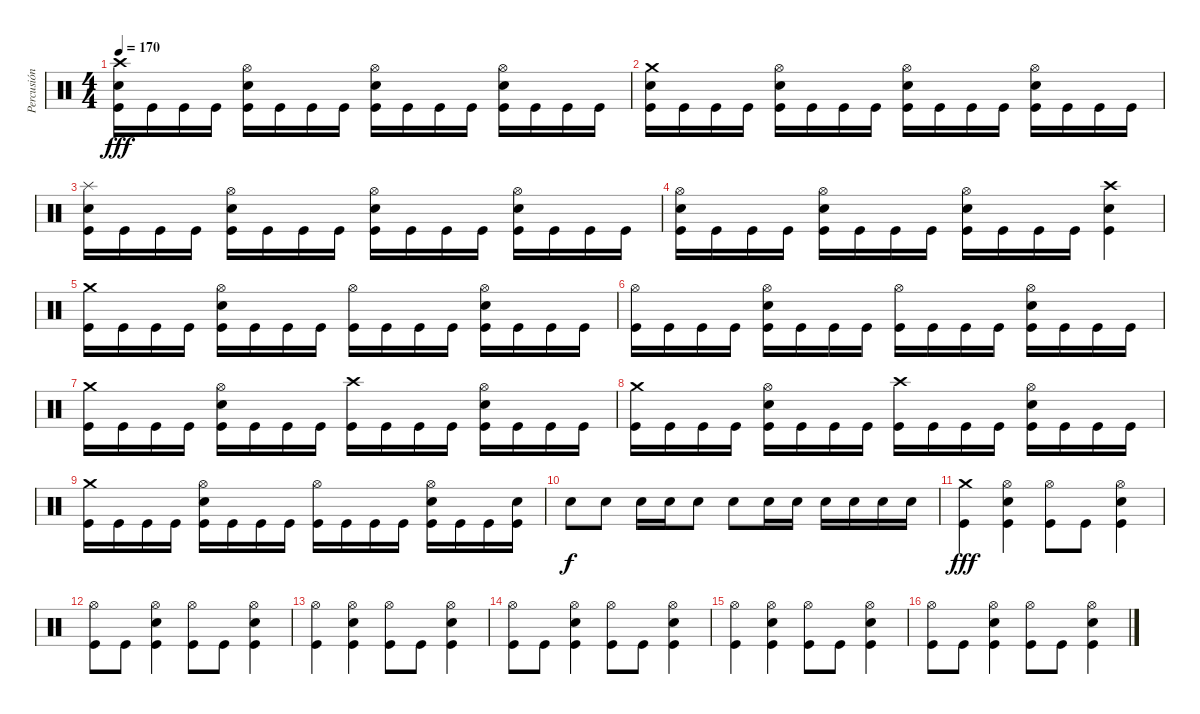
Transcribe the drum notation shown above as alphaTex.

\track ("Percusión" "Percusión") {instrument percussion}
\staff {score}
\articulation defaults
\ts (4 4)
\tempo 170
\clef neutral
\ks c
("Crash high (hit)" "Electric Snare (hit)" "Kick (hit)").16{dy fff} "Kick (hit)".16 "Kick (hit)".16 "Kick (hit)".16 ("Hi-Hat (open)" "Electric Snare (hit)" "Kick (hit)").16 "Kick (hit)".16 "Kick (hit)".16 "Kick (hit)".16 ("Hi-Hat (open)" "Electric Snare (hit)" "Kick (hit)").16 "Kick (hit)".16 "Kick (hit)".16 "Kick (hit)".16 ("Hi-Hat (open)" "Electric Snare (hit)" "Kick (hit)").16 "Kick (hit)".16 "Kick (hit)".16 "Kick (hit)".16 |
("Crash medium (hit)" "Electric Snare (hit)" "Kick (hit)").16 "Kick (hit)".16 "Kick (hit)".16 "Kick (hit)".16 ("Hi-Hat (open)" "Electric Snare (hit)" "Kick (hit)").16 "Kick (hit)".16 "Kick (hit)".16 "Kick (hit)".16 ("Hi-Hat (open)" "Electric Snare (hit)" "Kick (hit)").16 "Kick (hit)".16 "Kick (hit)".16 "Kick (hit)".16 ("Hi-Hat (open)" "Electric Snare (hit)" "Kick (hit)").16 "Kick (hit)".16 "Kick (hit)".16 "Kick (hit)".16 |
("Splash (hit)" "Electric Snare (hit)" "Kick (hit)").16 "Kick (hit)".16 "Kick (hit)".16 "Kick (hit)".16 ("Hi-Hat (open)" "Electric Snare (hit)" "Kick (hit)").16 "Kick (hit)".16 "Kick (hit)".16 "Kick (hit)".16 ("Hi-Hat (open)" "Electric Snare (hit)" "Kick (hit)").16 "Kick (hit)".16 "Kick (hit)".16 "Kick (hit)".16 ("Hi-Hat (open)" "Electric Snare (hit)" "Kick (hit)").16 "Kick (hit)".16 "Kick (hit)".16 "Kick (hit)".16 |
("Hi-Hat (open)" "Electric Snare (hit)" "Kick (hit)").16 "Kick (hit)".16 "Kick (hit)".16 "Kick (hit)".16 ("Hi-Hat (open)" "Electric Snare (hit)" "Kick (hit)").16 "Kick (hit)".16 "Kick (hit)".16 "Kick (hit)".16 ("Hi-Hat (open)" "Electric Snare (hit)" "Kick (hit)").16 "Kick (hit)".16 "Kick (hit)".16 "Kick (hit)".16 ("Crash high (hit)" "Electric Snare (hit)" "Kick (hit)").4 |
("Crash medium (hit)" "Kick (hit)").16 "Kick (hit)".16 "Kick (hit)".16 "Kick (hit)".16 ("Hi-Hat (open)" "Electric Snare (hit)" "Kick (hit)").16 "Kick (hit)".16 "Kick (hit)".16 "Kick (hit)".16 ("Hi-Hat (open)" "Kick (hit)").16 "Kick (hit)".16 "Kick (hit)".16 "Kick (hit)".16 ("Hi-Hat (open)" "Electric Snare (hit)" "Kick (hit)").16 "Kick (hit)".16 "Kick (hit)".16 "Kick (hit)".16 |
("Hi-Hat (open)" "Kick (hit)").16 "Kick (hit)".16 "Kick (hit)".16 "Kick (hit)".16 ("Hi-Hat (open)" "Electric Snare (hit)" "Kick (hit)").16 "Kick (hit)".16 "Kick (hit)".16 "Kick (hit)".16 ("Hi-Hat (open)" "Kick (hit)").16 "Kick (hit)".16 "Kick (hit)".16 "Kick (hit)".16 ("Hi-Hat (open)" "Electric Snare (hit)" "Kick (hit)").16 "Kick (hit)".16 "Kick (hit)".16 "Kick (hit)".16 |
("Crash medium (hit)" "Kick (hit)").16 "Kick (hit)".16 "Kick (hit)".16 "Kick (hit)".16 ("Hi-Hat (open)" "Electric Snare (hit)" "Kick (hit)").16 "Kick (hit)".16 "Kick (hit)".16 "Kick (hit)".16 ("Crash high (hit)" "Kick (hit)").16 "Kick (hit)".16 "Kick (hit)".16 "Kick (hit)".16 ("Hi-Hat (open)" "Electric Snare (hit)" "Kick (hit)").16 "Kick (hit)".16 "Kick (hit)".16 "Kick (hit)".16 |
("Crash medium (hit)" "Kick (hit)").16 "Kick (hit)".16 "Kick (hit)".16 "Kick (hit)".16 ("Hi-Hat (open)" "Electric Snare (hit)" "Kick (hit)").16 "Kick (hit)".16 "Kick (hit)".16 "Kick (hit)".16 ("Crash high (hit)" "Kick (hit)").16 "Kick (hit)".16 "Kick (hit)".16 "Kick (hit)".16 ("Hi-Hat (open)" "Electric Snare (hit)" "Kick (hit)").16 "Kick (hit)".16 "Kick (hit)".16 "Kick (hit)".16 |
("Crash medium (hit)" "Kick (hit)").16 "Kick (hit)".16 "Kick (hit)".16 "Kick (hit)".16 ("Hi-Hat (open)" "Electric Snare (hit)" "Kick (hit)").16 "Kick (hit)".16 "Kick (hit)".16 "Kick (hit)".16 ("Hi-Hat (open)" "Kick (hit)").16 "Kick (hit)".16 "Kick (hit)".16 "Kick (hit)".16 ("Hi-Hat (open)" "Electric Snare (hit)" "Kick (hit)").16 "Kick (hit)".16 "Kick (hit)".16 ("Electric Snare (hit)" "Kick (hit)").16 |
"Electric Snare (hit)".8{dy f} "Electric Snare (hit)".8 "Electric Snare (hit)".16 "Electric Snare (hit)".16 "Electric Snare (hit)".8 "Electric Snare (hit)".8 "Electric Snare (hit)".16 "Electric Snare (hit)".16 "Electric Snare (hit)".16 "Electric Snare (hit)".16 "Electric Snare (hit)".16 "Electric Snare (hit)".16 |
("Crash medium (hit)" "Kick (hit)").4{dy fff} ("Hi-Hat (open)" "Electric Snare (hit)" "Kick (hit)").4 ("Hi-Hat (open)" "Kick (hit)").8 "Kick (hit)".8 ("Hi-Hat (open)" "Electric Snare (hit)" "Kick (hit)").4 |
("Hi-Hat (open)" "Kick (hit)").8 "Kick (hit)".8 ("Hi-Hat (open)" "Electric Snare (hit)" "Kick (hit)").4 ("Hi-Hat (open)" "Kick (hit)").8 "Kick (hit)".8 ("Hi-Hat (open)" "Electric Snare (hit)" "Kick (hit)").4 |
("Hi-Hat (open)" "Kick (hit)").4 ("Hi-Hat (open)" "Electric Snare (hit)" "Kick (hit)").4 ("Hi-Hat (open)" "Kick (hit)").8 "Kick (hit)".8 ("Hi-Hat (open)" "Electric Snare (hit)" "Kick (hit)").4 |
("Hi-Hat (open)" "Kick (hit)").8 "Kick (hit)".8 ("Hi-Hat (open)" "Electric Snare (hit)" "Kick (hit)").4 ("Hi-Hat (open)" "Kick (hit)").8 "Kick (hit)".8 ("Hi-Hat (open)" "Electric Snare (hit)" "Kick (hit)").4 |
("Hi-Hat (open)" "Kick (hit)").4 ("Hi-Hat (open)" "Electric Snare (hit)" "Kick (hit)").4 ("Hi-Hat (open)" "Kick (hit)").8 "Kick (hit)".8 ("Hi-Hat (open)" "Electric Snare (hit)" "Kick (hit)").4 |
("Hi-Hat (open)" "Kick (hit)").8 "Kick (hit)".8 ("Hi-Hat (open)" "Electric Snare (hit)" "Kick (hit)").4 ("Hi-Hat (open)" "Kick (hit)").8 "Kick (hit)".8 ("Hi-Hat (open)" "Electric Snare (hit)" "Kick (hit)").4
